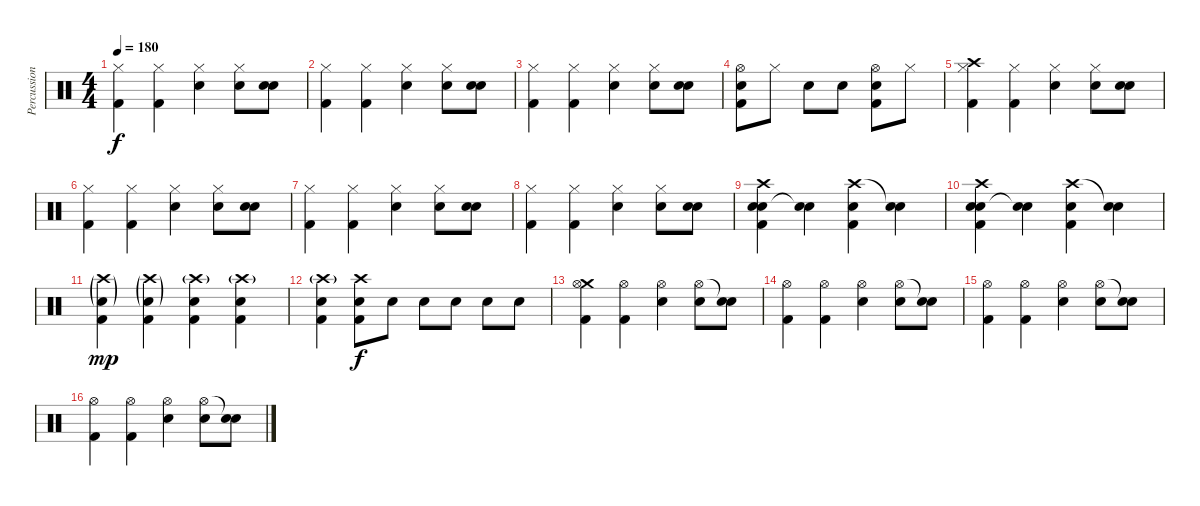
\track ("Percussion" "Percussion") {instrument percussion}
\staff {score}
\articulation defaults
\ts (4 4)
\tempo 180
\clef neutral
\ks c
("Hi-Hat (closed)" "Kick (hit) 2").4{dy f} ("Hi-Hat (closed)" "Kick (hit) 2").4 ("Hi-Hat (closed)" "Electric Snare (hit)").4 ("Hi-Hat (closed)" "Snare (hit)").8 ("Snare (hit)" "Electric Snare (hit)").8 |
("Hi-Hat (closed)" "Kick (hit) 2").4 ("Hi-Hat (closed)" "Kick (hit) 2").4 ("Hi-Hat (closed)" "Electric Snare (hit)").4 ("Hi-Hat (closed)" "Snare (hit)").8 ("Snare (hit)" "Electric Snare (hit)").8 |
("Hi-Hat (closed)" "Kick (hit) 2").4 ("Hi-Hat (closed)" "Kick (hit) 2").4 ("Hi-Hat (closed)" "Electric Snare (hit)").4 ("Hi-Hat (closed)" "Snare (hit)").8 ("Snare (hit)" "Electric Snare (hit)").8 |
("Hi-Hat (open)" "Electric Snare (hit)" "Kick (hit) 2").8 "Hi-Hat (closed)".8 "Snare (hit)".8 "Snare (hit)".8 ("Hi-Hat (open)" "Electric Snare (hit)" "Kick (hit) 2").8 "Hi-Hat (closed)".8 |
("Crash high (hit)" "Hi-Hat (closed)" "Kick (hit) 2").4 ("Hi-Hat (closed)" "Kick (hit) 2").4 ("Hi-Hat (closed)" "Electric Snare (hit)").4 ("Hi-Hat (closed)" "Snare (hit)").8 ("Snare (hit)" "Electric Snare (hit)").8 |
("Hi-Hat (closed)" "Kick (hit) 2").4 ("Hi-Hat (closed)" "Kick (hit) 2").4 ("Hi-Hat (closed)" "Electric Snare (hit)").4 ("Hi-Hat (closed)" "Snare (hit)").8 ("Snare (hit)" "Electric Snare (hit)").8 |
("Hi-Hat (closed)" "Kick (hit) 2").4 ("Hi-Hat (closed)" "Kick (hit) 2").4 ("Hi-Hat (closed)" "Electric Snare (hit)").4 ("Hi-Hat (closed)" "Snare (hit)").8 ("Snare (hit)" "Electric Snare (hit)").8 |
("Hi-Hat (closed)" "Kick (hit) 2").4 ("Hi-Hat (closed)" "Kick (hit) 2").4 ("Hi-Hat (closed)" "Electric Snare (hit)").4 ("Hi-Hat (closed)" "Snare (hit)").8 ("Snare (hit)" "Electric Snare (hit)").8 |
("Snare (hit)" "Crash high (hit)" "Electric Snare (hit)" "Kick (hit) 2").4 ("Snare (hit)"{t} "Snare (hit)").4 ("Crash high (hit)" "Electric Snare (hit)" "Kick (hit) 2").4 ("Snare (hit)"{t} "Snare (hit)").4 |
("Snare (hit)" "Crash high (hit)" "Electric Snare (hit)" "Kick (hit) 2").4 ("Snare (hit)"{t} "Snare (hit)").4 ("Crash high (hit)" "Electric Snare (hit)" "Kick (hit) 2").4 ("Snare (hit)"{t} "Snare (hit)").4 |
("Crash high (hit)"{g} "Electric Snare (hit)"{g} "Kick (hit) 2").4{dy mp} ("Crash high (hit)"{g} "Electric Snare (hit)"{g} "Kick (hit) 2").4 ("Crash high (hit)"{g} "Electric Snare (hit)" "Kick (hit) 2").4 ("Crash high (hit)"{g} "Electric Snare (hit)" "Kick (hit) 2").4 |
("Crash high (hit)"{g} "Electric Snare (hit)" "Kick (hit) 2").4 ("Crash high (hit)" "Electric Snare (hit)" "Kick (hit) 2").8{dy f} "Electric Snare (hit)".8 "Electric Snare (hit)".8 "Electric Snare (hit)".8 "Electric Snare (hit)".8 "Electric Snare (hit)".8 |
("Crash medium (hit)" "Hi-Hat (open)" "Kick (hit) 2").4 ("Hi-Hat (open)" "Kick (hit) 2").4 ("Hi-Hat (open)" "Electric Snare (hit)").4 ("Hi-Hat (open)" "Snare (hit)").8 ("Snare (hit)"{t} "Electric Snare (hit)").8 |
("Hi-Hat (open)" "Kick (hit) 2").4 ("Hi-Hat (open)" "Kick (hit) 2").4 ("Hi-Hat (open)" "Electric Snare (hit)").4 ("Hi-Hat (open)" "Snare (hit)").8 ("Snare (hit)"{t} "Electric Snare (hit)").8 |
("Hi-Hat (open)" "Kick (hit) 2").4 ("Hi-Hat (open)" "Kick (hit) 2").4 ("Hi-Hat (open)" "Electric Snare (hit)").4 ("Hi-Hat (open)" "Snare (hit)").8 ("Snare (hit)"{t} "Electric Snare (hit)").8 |
("Hi-Hat (open)" "Kick (hit) 2").4 ("Hi-Hat (open)" "Kick (hit) 2").4 ("Hi-Hat (open)" "Electric Snare (hit)").4 ("Hi-Hat (open)" "Snare (hit)").8 ("Snare (hit)"{t} "Electric Snare (hit)").8
